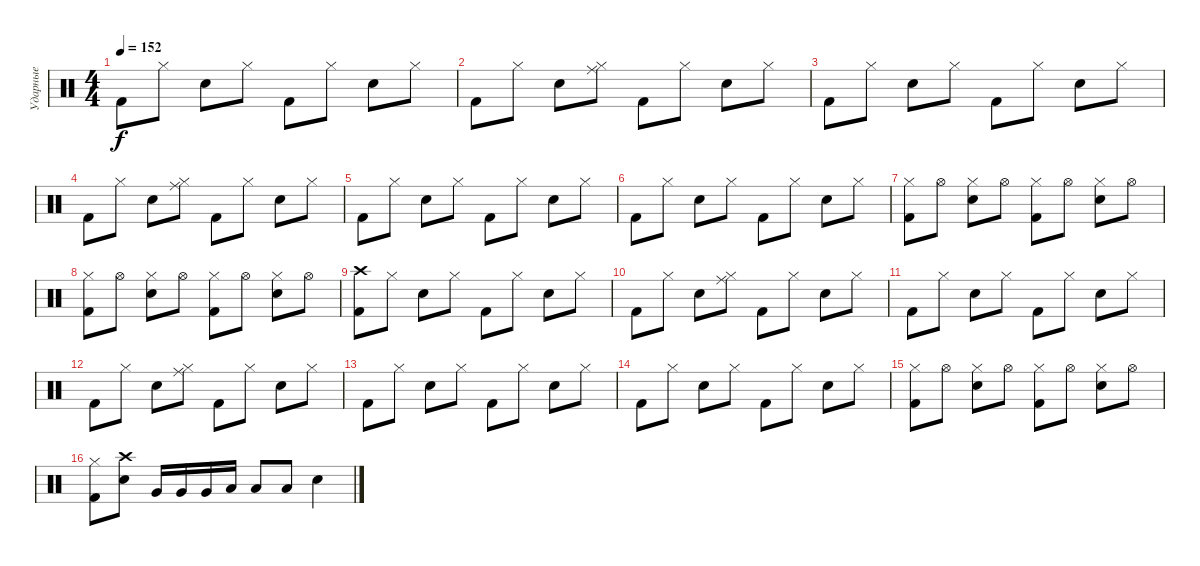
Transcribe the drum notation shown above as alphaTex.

\track ("Ударные" "Ударные") {instrument percussion}
\staff {score}
\articulation defaults
\ts (4 4)
\tempo 152
\clef neutral
\ks c "Kick (hit) 2".8{dy f} "Hi-Hat (closed)".8 "Electric Snare (hit)".8 "Hi-Hat (closed)".8 "Kick (hit) 2".8 "Hi-Hat (closed)".8 "Electric Snare (hit)".8 "Hi-Hat (closed)".8
|
"Kick (hit) 2".8 "Hi-Hat (closed)".8 "Electric Snare (hit)".8 ("Ride (middle)" "Hi-Hat (closed)").8 "Kick (hit) 2".8 "Hi-Hat (closed)".8 "Electric Snare (hit)".8 "Hi-Hat (closed)".8 |
"Kick (hit) 2".8 "Hi-Hat (closed)".8 "Electric Snare (hit)".8 "Hi-Hat (closed)".8 "Kick (hit) 2".8 "Hi-Hat (closed)".8 "Electric Snare (hit)".8 "Hi-Hat (closed)".8 |
"Kick (hit) 2".8 "Hi-Hat (closed)".8 "Electric Snare (hit)".8 ("Ride (middle)" "Hi-Hat (closed)").8 "Kick (hit) 2".8 "Hi-Hat (closed)".8 "Electric Snare (hit)".8 "Hi-Hat (closed)".8 |
"Kick (hit) 2".8 "Hi-Hat (closed)".8 "Electric Snare (hit)".8 "Hi-Hat (closed)".8 "Kick (hit) 2".8 "Hi-Hat (closed)".8 "Electric Snare (hit)".8 "Hi-Hat (closed)".8 |
"Kick (hit) 2".8 "Hi-Hat (closed)".8 "Electric Snare (hit)".8 "Hi-Hat (closed)".8 "Kick (hit) 2".8 "Hi-Hat (closed)".8 "Electric Snare (hit)".8 "Hi-Hat (closed)".8 |
("Hi-Hat (closed)" "Kick (hit) 2").8 "Hi-Hat (open)".8 ("Hi-Hat (closed)" "Electric Snare (hit)").8 "Hi-Hat (open)".8 ("Hi-Hat (closed)" "Kick (hit) 2").8 "Hi-Hat (open)".8 ("Hi-Hat (closed)" "Electric Snare (hit)").8 "Hi-Hat (open)".8 |
("Hi-Hat (closed)" "Kick (hit) 2").8 "Hi-Hat (open)".8 ("Hi-Hat (closed)" "Electric Snare (hit)").8 "Hi-Hat (open)".8 ("Hi-Hat (closed)" "Kick (hit) 2").8 "Hi-Hat (open)".8 ("Hi-Hat (closed)" "Electric Snare (hit)").8 "Hi-Hat (open)".8 |
("Crash high (hit)" "Kick (hit) 2").8 "Hi-Hat (closed)".8 "Electric Snare (hit)".8 "Hi-Hat (closed)".8 "Kick (hit) 2".8 "Hi-Hat (closed)".8 "Electric Snare (hit)".8 "Hi-Hat (closed)".8 |
"Kick (hit) 2".8 "Hi-Hat (closed)".8 "Electric Snare (hit)".8 ("Ride (middle)" "Hi-Hat (closed)").8 "Kick (hit) 2".8 "Hi-Hat (closed)".8 "Electric Snare (hit)".8 "Hi-Hat (closed)".8 |
"Kick (hit) 2".8 "Hi-Hat (closed)".8 "Electric Snare (hit)".8 "Hi-Hat (closed)".8 "Kick (hit) 2".8 "Hi-Hat (closed)".8 "Electric Snare (hit)".8 "Hi-Hat (closed)".8 |
"Kick (hit) 2".8 "Hi-Hat (closed)".8 "Electric Snare (hit)".8 ("Ride (middle)" "Hi-Hat (closed)").8 "Kick (hit) 2".8 "Hi-Hat (closed)".8 "Electric Snare (hit)".8 "Hi-Hat (closed)".8 |
"Kick (hit) 2".8 "Hi-Hat (closed)".8 "Electric Snare (hit)".8 "Hi-Hat (closed)".8 "Kick (hit) 2".8 "Hi-Hat (closed)".8 "Electric Snare (hit)".8 "Hi-Hat (closed)".8 |
"Kick (hit) 2".8 "Hi-Hat (closed)".8 "Electric Snare (hit)".8 "Hi-Hat (closed)".8 "Kick (hit) 2".8 "Hi-Hat (closed)".8 "Electric Snare (hit)".8 "Hi-Hat (closed)".8 |
("Hi-Hat (closed)" "Kick (hit) 2").8 "Hi-Hat (open)".8 ("Hi-Hat (closed)" "Electric Snare (hit)").8 "Hi-Hat (open)".8 ("Hi-Hat (closed)" "Kick (hit) 2").8 "Hi-Hat (open)".8 ("Hi-Hat (closed)" "Electric Snare (hit)").8 "Hi-Hat (open)".8 |
("Hi-Hat (closed)" "Kick (hit) 2").8 ("Crash high (hit)" "Electric Snare (hit)").8 "Very Low Tom (hit)".16 "Very Low Tom (hit)".16 "Very Low Tom (hit)".16 "Low Floor Tom (hit)".16 "Low Floor Tom (hit)".8 "Low Floor Tom (hit)".8 "Electric Snare (hit)".4
